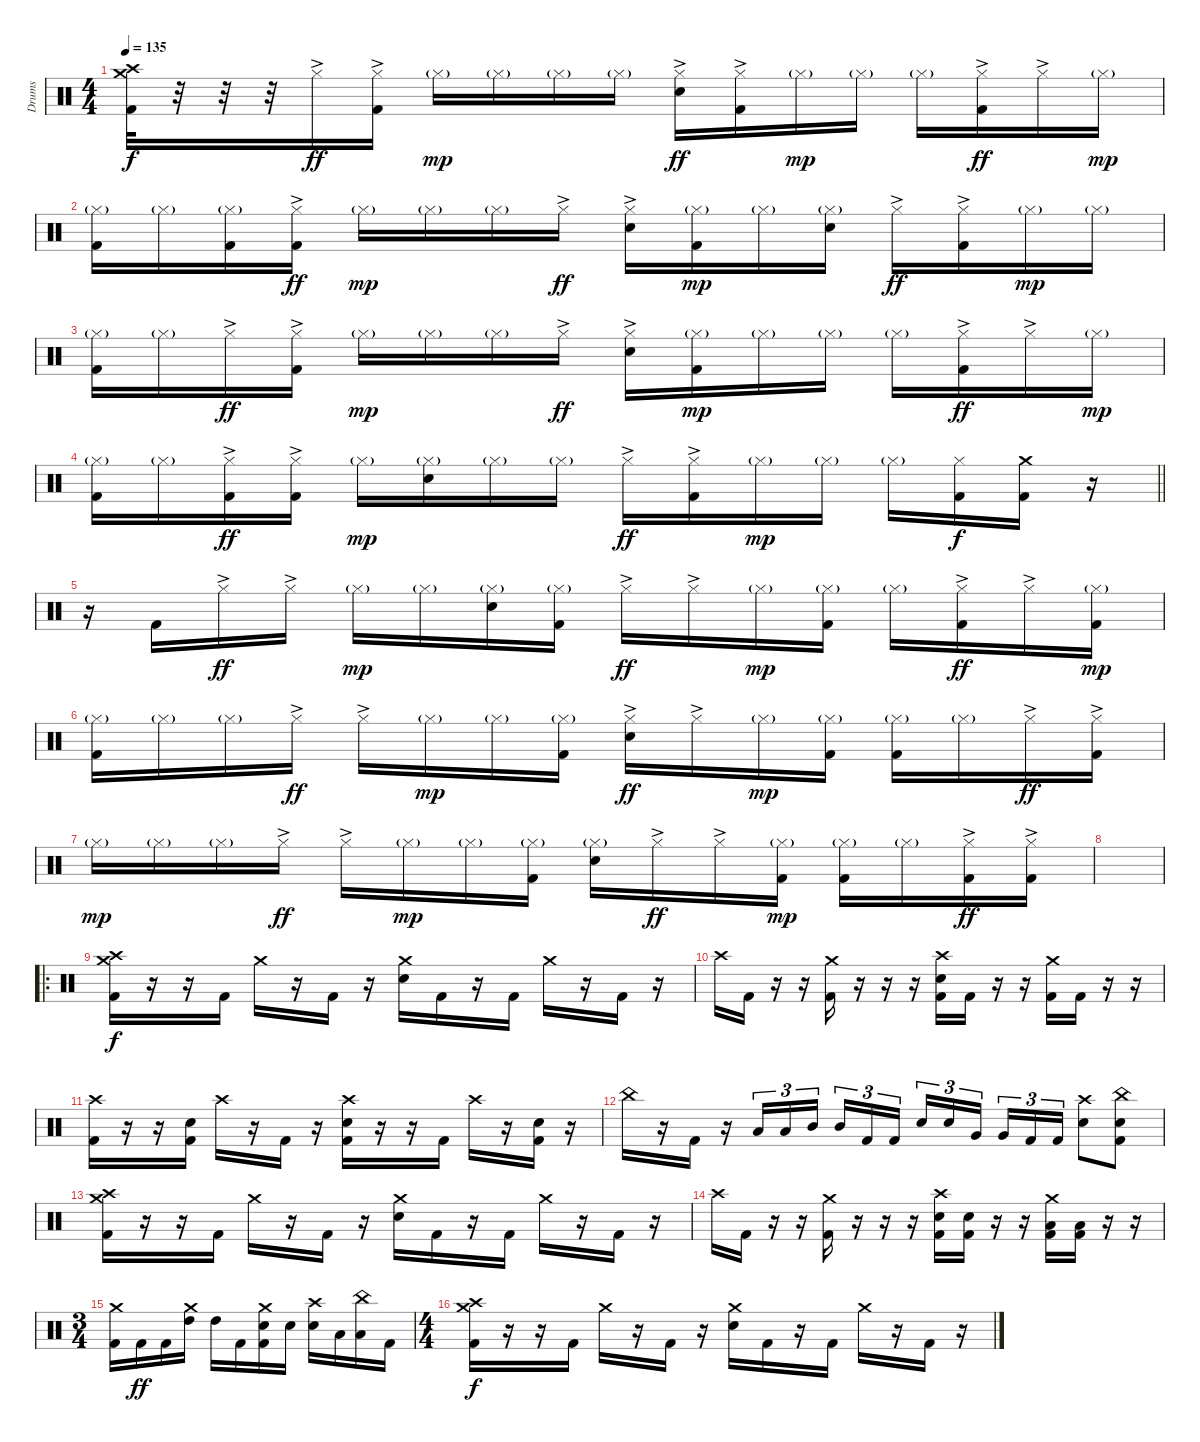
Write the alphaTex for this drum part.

\track ("Drums" "Drums") {instrument percussion}
\staff {score}
\articulation defaults
\ts (4 4)
\tempo 135
\clef neutral
\ks c
("Crash high (hit)" "Crash medium (hit)" "Kick (hit) 2").32{dy f} r.32 r.32 r.32 "Hi-Hat (closed)"{ac}.16{dy ff} ("Hi-Hat (closed)"{ac} "Kick (hit) 2").16 "Hi-Hat (closed)"{g}.16{dy mp} "Hi-Hat (closed)"{g}.16 "Hi-Hat (closed)"{g}.16 "Hi-Hat (closed)"{g}.16 ("Hi-Hat (closed)"{ac} "Snare (hit) 2").16{dy ff} ("Hi-Hat (closed)"{ac} "Kick (hit) 2").16 "Hi-Hat (closed)"{g}.16{dy mp} "Hi-Hat (closed)"{g}.16 "Hi-Hat (closed)"{g}.16 ("Hi-Hat (closed)"{ac} "Kick (hit) 2").16{dy ff} "Hi-Hat (closed)"{ac}.16 "Hi-Hat (closed)"{g}.16{dy mp} |
("Hi-Hat (closed)"{g} "Kick (hit) 2").16 "Hi-Hat (closed)"{g}.16 ("Hi-Hat (closed)"{g} "Kick (hit) 2").16 ("Hi-Hat (closed)"{ac} "Kick (hit) 2").16{dy ff} "Hi-Hat (closed)"{g}.16{dy mp} "Hi-Hat (closed)"{g}.16 "Hi-Hat (closed)"{g}.16 "Hi-Hat (closed)"{ac}.16{dy ff} ("Hi-Hat (closed)"{ac} "Snare (hit) 2").16 ("Hi-Hat (closed)"{g} "Kick (hit) 2").16{dy mp} "Hi-Hat (closed)"{g}.16 ("Hi-Hat (closed)"{g} "Snare (hit) 2").16 "Hi-Hat (closed)"{ac}.16{dy ff} ("Hi-Hat (closed)"{ac} "Kick (hit) 2").16 "Hi-Hat (closed)"{g}.16{dy mp} "Hi-Hat (closed)"{g}.16 |
("Hi-Hat (closed)"{g} "Kick (hit) 2").16 "Hi-Hat (closed)"{g}.16 "Hi-Hat (closed)"{ac}.16{dy ff} ("Hi-Hat (closed)"{ac} "Kick (hit) 2").16 "Hi-Hat (closed)"{g}.16{dy mp} "Hi-Hat (closed)"{g}.16 "Hi-Hat (closed)"{g}.16 "Hi-Hat (closed)"{ac}.16{dy ff} ("Hi-Hat (closed)"{ac} "Snare (hit) 2").16 ("Hi-Hat (closed)"{g} "Kick (hit) 2").16{dy mp} "Hi-Hat (closed)"{g}.16 "Hi-Hat (closed)"{g}.16 "Hi-Hat (closed)"{g}.16 ("Hi-Hat (closed)"{ac} "Kick (hit) 2").16{dy ff} "Hi-Hat (closed)"{ac}.16 "Hi-Hat (closed)"{g}.16{dy mp} |
\barLineRight lightlight
("Hi-Hat (closed)"{g} "Kick (hit) 2").16 "Hi-Hat (closed)"{g}.16 ("Hi-Hat (closed)"{ac} "Kick (hit) 2").16{dy ff} ("Hi-Hat (closed)"{ac} "Kick (hit) 2").16 "Hi-Hat (closed)"{g}.16{dy mp} ("Hi-Hat (closed)"{g} "Snare (hit) 2").16 "Hi-Hat (closed)"{g}.16 "Hi-Hat (closed)"{g}.16 "Hi-Hat (closed)"{ac}.16{dy ff} ("Hi-Hat (closed)"{ac} "Kick (hit) 2").16 "Hi-Hat (closed)"{g}.16{dy mp} "Hi-Hat (closed)"{g}.16 "Hi-Hat (closed)"{g}.16 ("Hi-Hat (closed)" "Kick (hit) 2").16{dy f} ("Crash medium (hit)" "Kick (hit) 2").16 r.16 |
r.16 "Kick (hit) 2".16 "Hi-Hat (closed)"{ac}.16{dy ff} "Hi-Hat (closed)"{ac}.16 "Hi-Hat (closed)"{g}.16{dy mp} "Hi-Hat (closed)"{g}.16 ("Hi-Hat (closed)"{g} "Snare (hit) 2").16 ("Hi-Hat (closed)"{g} "Kick (hit) 2").16 "Hi-Hat (closed)"{ac}.16{dy ff} "Hi-Hat (closed)"{ac}.16 "Hi-Hat (closed)"{g}.16{dy mp} ("Hi-Hat (closed)"{g} "Kick (hit) 2").16 "Hi-Hat (closed)"{g}.16 ("Hi-Hat (closed)"{ac} "Kick (hit) 2").16{dy ff} "Hi-Hat (closed)"{ac}.16 ("Hi-Hat (closed)"{g} "Kick (hit) 2").16{dy mp} |
("Hi-Hat (closed)"{g} "Kick (hit) 2").16 "Hi-Hat (closed)"{g}.16 "Hi-Hat (closed)"{g}.16 "Hi-Hat (closed)"{ac}.16{dy ff} "Hi-Hat (closed)"{ac}.16 "Hi-Hat (closed)"{g}.16{dy mp} "Hi-Hat (closed)"{g}.16 ("Hi-Hat (closed)"{g} "Kick (hit) 2").16 ("Hi-Hat (closed)"{ac} "Snare (hit) 2").16{dy ff} "Hi-Hat (closed)"{ac}.16 "Hi-Hat (closed)"{g}.16{dy mp} ("Hi-Hat (closed)"{g} "Kick (hit) 2").16 ("Hi-Hat (closed)"{g} "Kick (hit) 2").16 "Hi-Hat (closed)"{g}.16 "Hi-Hat (closed)"{ac}.16{dy ff} ("Hi-Hat (closed)"{ac} "Kick (hit) 2").16 |
"Hi-Hat (closed)"{g}.16{dy mp} "Hi-Hat (closed)"{g}.16 "Hi-Hat (closed)"{g}.16 "Hi-Hat (closed)"{ac}.16{dy ff} "Hi-Hat (closed)"{ac}.16 "Hi-Hat (closed)"{g}.16{dy mp} "Hi-Hat (closed)"{g}.16 ("Hi-Hat (closed)"{g} "Kick (hit) 2").16 ("Hi-Hat (closed)"{g} "Snare (hit) 2").16 "Hi-Hat (closed)"{ac}.16{dy ff} "Hi-Hat (closed)"{ac}.16 ("Hi-Hat (closed)"{g} "Kick (hit) 2").16{dy mp} ("Hi-Hat (closed)"{g} "Kick (hit) 2").16 "Hi-Hat (closed)"{g}.16 ("Hi-Hat (closed)"{ac} "Kick (hit) 2").16{dy ff} ("Hi-Hat (closed)"{ac} "Kick (hit) 2").16 |
|
\ro
("Crash medium (hit)" "Crash high (hit)" "Kick (hit) 2").16{dy f} r.16 r.16 "Kick (hit) 2".16 "Crash medium (hit)".16 r.16 "Kick (hit) 2".16 r.16 ("Crash medium (hit)" "Snare (hit) 2").16 "Kick (hit) 2".16 r.16 "Kick (hit) 2".16 "Crash medium (hit)".16 r.16 "Kick (hit) 2".16 r.16 |
"Crash high (hit)".16 "Kick (hit) 2".16 r.16 r.16 ("Crash medium (hit)" "Kick (hit) 2").16 r.16 r.16 r.16 ("Crash high (hit)" "Snare (hit) 2" "Kick (hit) 2").16 "Kick (hit) 2".16 r.16 r.16 ("Crash medium (hit)" "Kick (hit) 2").16 "Kick (hit) 2".16 r.16 r.16 |
("Crash high (hit)" "Kick (hit) 2").16 r.16 r.16 ("Snare (hit) 2" "Kick (hit) 2").16 "Crash high (hit)".16 r.16 "Kick (hit) 2".16 r.16 ("Crash high (hit)" "Snare (hit) 2" "Kick (hit) 2").16 r.16 r.16 "Kick (hit) 2".16 "Crash high (hit)".16 r.16 ("Snare (hit) 2" "Kick (hit) 2").16 r.16 |
"China (hit)".16 r.16 "Kick (hit) 2".16 r.16 "Low Tom (hit)".16{tu (3 2)} "Low Tom (hit)".16{tu (3 2)} "Mid Tom (hit)".16{tu (3 2) beam splitsecondary} "Mid Tom (hit)".16{tu (3 2)} "Kick (hit) 2".16{tu (3 2)} "Kick (hit) 2".16{tu (3 2)} "Snare (hit) 2".16{tu (3 2)} "Snare (hit) 2".16{tu (3 2)} "Very Low Tom (hit)".16{tu (3 2) beam splitsecondary} "Very Low Tom (hit)".16{tu (3 2)} "Kick (hit) 2".16{tu (3 2)} "Kick (hit) 2".16{tu (3 2)} ("Crash high (hit)" "Snare (hit) 2").8 ("China (hit)" "Snare (hit) 2" "Kick (hit) 2").8 |
("Crash medium (hit)" "Crash high (hit)" "Kick (hit) 2").16 r.16 r.16 "Kick (hit) 2".16 "Crash medium (hit)".16 r.16 "Kick (hit) 2".16 r.16 ("Crash medium (hit)" "Snare (hit) 2").16 "Kick (hit) 2".16 r.16 "Kick (hit) 2".16 "Crash medium (hit)".16 r.16 "Kick (hit) 2".16 r.16 |
"Crash high (hit)".16 "Kick (hit) 2".16 r.16 r.16 ("Crash medium (hit)" "Kick (hit) 2").16 r.16 r.16 r.16 ("Crash high (hit)" "Snare (hit) 2" "Kick (hit) 2").16 ("Snare (hit) 2" "Kick (hit) 2").16 r.16 r.16 ("Crash medium (hit)" "Low Tom (hit)" "Kick (hit) 2").16 ("Low Tom (hit)" "Kick (hit) 2").16 r.16 r.16 |
\ts (3 4)
("Crash medium (hit)" "Kick (hit) 2").16 "Kick (hit) 2".16{dy ff} "Kick (hit) 2".16 ("Crash medium (hit)" "High Tom (hit)").16 "High Tom (hit)".16 "Kick (hit) 2".16 ("Crash medium (hit)" "Snare (hit) 2" "Kick (hit) 2").16 "Snare (hit) 2".16 ("Crash high (hit)" "Snare (hit) 2").16 "Low Tom (hit)".16 ("China (hit)" "Low Tom (hit)").16 "Kick (hit) 2".16 |
\ts (4 4)
("Crash medium (hit)" "Crash high (hit)" "Kick (hit) 2").16{dy f} r.16 r.16 "Kick (hit) 2".16 "Crash medium (hit)".16 r.16 "Kick (hit) 2".16 r.16 ("Crash medium (hit)" "Snare (hit) 2").16 "Kick (hit) 2".16 r.16 "Kick (hit) 2".16 "Crash medium (hit)".16 r.16 "Kick (hit) 2".16 r.16
